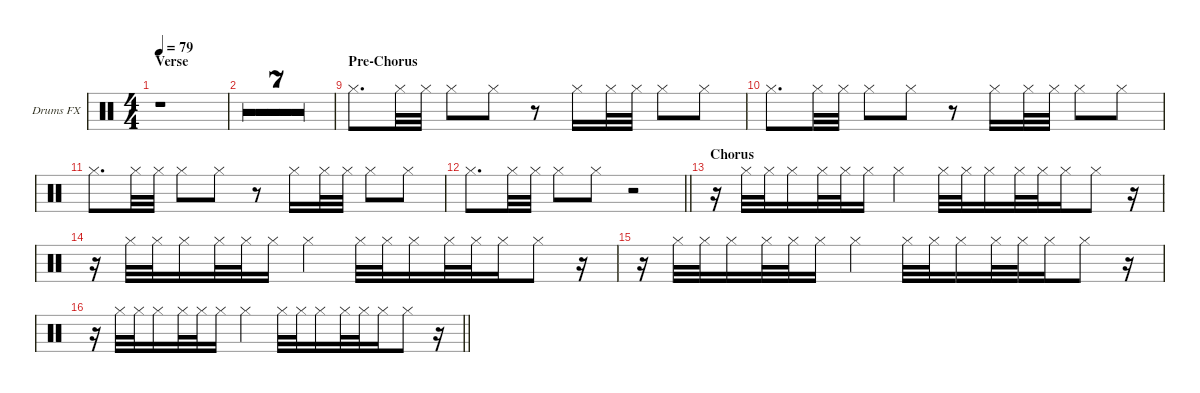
\defaultSystemsLayout 4
\hideDynamics
\bracketExtendMode groupsimilarinstruments
\firstSystemTrackNameOrientation horizontal
\otherSystemsTrackNameOrientation horizontal
\track ("Drumkit FX" "Drums FX") {multiBarRest instrument percussion}
\staff {score}
\articulation defaults
\ts (4 4)
\section ("" "Verse")
\tempo 79
\clef neutral
\ks c
r.1{dy mf} |
r.1 |
r.1 |
r.1 |
r.1 |
r.1 |
r.1 |
\barLineRight lightlight
r.1 |
\section ("" "Pre-Chorus")
"Hi-Hat (closed)".8{d} "Hi-Hat (closed)".32 "Hi-Hat (closed)".32 "Hi-Hat (closed)".8 "Hi-Hat (closed)".8 r.8 "Hi-Hat (closed)".16 "Hi-Hat (closed)".32 "Hi-Hat (closed)".32 "Hi-Hat (closed)".8 "Hi-Hat (closed)".8 |
"Hi-Hat (closed)".8{d} "Hi-Hat (closed)".32 "Hi-Hat (closed)".32 "Hi-Hat (closed)".8 "Hi-Hat (closed)".8 r.8 "Hi-Hat (closed)".16 "Hi-Hat (closed)".32 "Hi-Hat (closed)".32 "Hi-Hat (closed)".8 "Hi-Hat (closed)".8 |
"Hi-Hat (closed)".8{d} "Hi-Hat (closed)".32 "Hi-Hat (closed)".32 "Hi-Hat (closed)".8 "Hi-Hat (closed)".8 r.8 "Hi-Hat (closed)".16 "Hi-Hat (closed)".32 "Hi-Hat (closed)".32 "Hi-Hat (closed)".8 "Hi-Hat (closed)".8 |
\barLineRight lightlight "Hi-Hat (closed)".8{d} "Hi-Hat (closed)".32 "Hi-Hat (closed)".32 "Hi-Hat (closed)".8 "Hi-Hat (closed)".8
r.2 |
\section ("" "Chorus")
r.16 "Hi-Hat (closed)".32{dy mp} "Hi-Hat (closed)".32 "Hi-Hat (closed)".16 "Hi-Hat (closed)".32 "Hi-Hat (closed)".32{beam merge} "Hi-Hat (closed)".16 "Hi-Hat (closed)".4 "Hi-Hat (closed)".32 "Hi-Hat (closed)".32 "Hi-Hat (closed)".16 "Hi-Hat (closed)".32 "Hi-Hat (closed)".32{beam merge} "Hi-Hat (closed)".16 "Hi-Hat (closed)".8 r.16 |
r.16 "Hi-Hat (closed)".32 "Hi-Hat (closed)".32 "Hi-Hat (closed)".16 "Hi-Hat (closed)".32 "Hi-Hat (closed)".32{beam merge} "Hi-Hat (closed)".16 "Hi-Hat (closed)".4 "Hi-Hat (closed)".32 "Hi-Hat (closed)".32 "Hi-Hat (closed)".16 "Hi-Hat (closed)".32 "Hi-Hat (closed)".32{beam merge} "Hi-Hat (closed)".16 "Hi-Hat (closed)".8 r.16 |
r.16 "Hi-Hat (closed)".32 "Hi-Hat (closed)".32 "Hi-Hat (closed)".16 "Hi-Hat (closed)".32 "Hi-Hat (closed)".32{beam merge} "Hi-Hat (closed)".16 "Hi-Hat (closed)".4 "Hi-Hat (closed)".32 "Hi-Hat (closed)".32 "Hi-Hat (closed)".16 "Hi-Hat (closed)".32 "Hi-Hat (closed)".32{beam merge} "Hi-Hat (closed)".16 "Hi-Hat (closed)".8 r.16 |
\barLineRight lightlight
r.16 "Hi-Hat (closed)".32 "Hi-Hat (closed)".32 "Hi-Hat (closed)".16 "Hi-Hat (closed)".32 "Hi-Hat (closed)".32{beam merge} "Hi-Hat (closed)".16 "Hi-Hat (closed)".4 "Hi-Hat (closed)".32 "Hi-Hat (closed)".32 "Hi-Hat (closed)".16 "Hi-Hat (closed)".32 "Hi-Hat (closed)".32{beam merge} "Hi-Hat (closed)".16 "Hi-Hat (closed)".8 r.16
